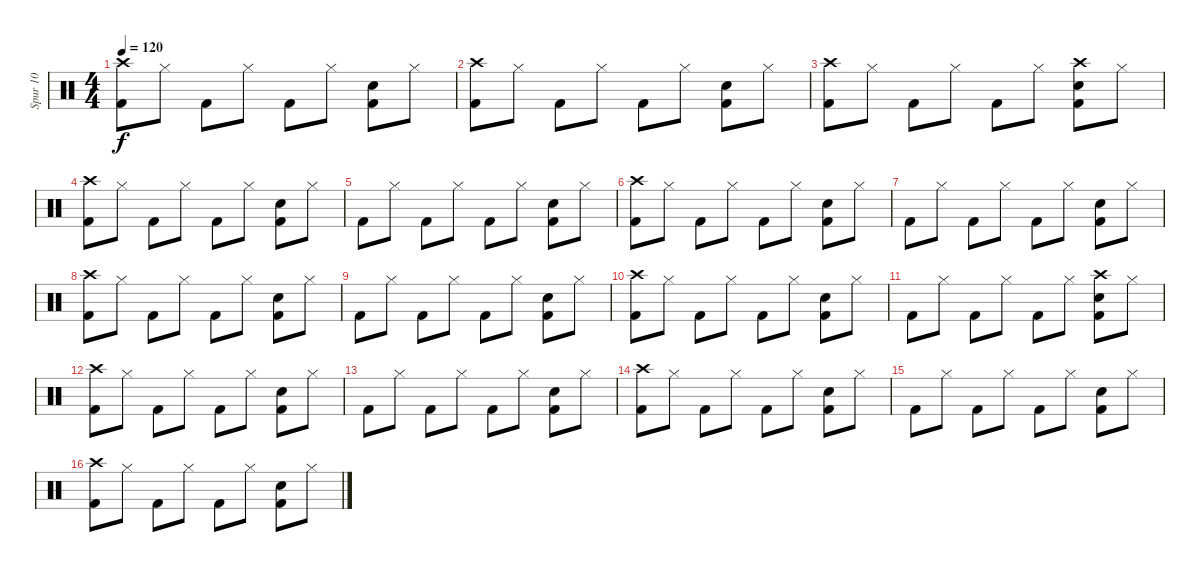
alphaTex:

\track ("Spur 10" "Spur 10") {instrument percussion}
\staff {score}
\articulation defaults
\ts (4 4)
\tempo 120
\clef neutral
\ks c
("Kick (hit) 2" "Crash high (hit)").8{dy f} "Hi-Hat (closed)".8 "Kick (hit) 2".8 "Hi-Hat (closed)".8 "Kick (hit) 2".8 "Hi-Hat (closed)".8 ("Kick (hit) 2" "Hand Clap (hit)").8 "Hi-Hat (closed)".8 |
("Kick (hit) 2" "Crash high (hit)").8 "Hi-Hat (closed)".8 "Kick (hit) 2".8 "Hi-Hat (closed)".8 "Kick (hit) 2".8 "Hi-Hat (closed)".8 ("Kick (hit) 2" "Hand Clap (hit)").8 "Hi-Hat (closed)".8 |
("Kick (hit) 2" "Crash high (hit)").8 "Hi-Hat (closed)".8 "Kick (hit) 2".8 "Hi-Hat (closed)".8 "Kick (hit) 2".8 "Hi-Hat (closed)".8 ("Kick (hit) 2" "Hand Clap (hit)" "Crash high (hit)").8 "Hi-Hat (closed)".8 |
("Crash high (hit)" "Kick (hit) 2").8 "Hi-Hat (closed)".8 "Kick (hit) 2".8 "Hi-Hat (closed)".8 "Kick (hit) 2".8 "Hi-Hat (closed)".8 ("Kick (hit) 2" "Hand Clap (hit)").8 "Hi-Hat (closed)".8 |
"Kick (hit) 2".8 "Hi-Hat (closed)".8 "Kick (hit) 2".8 "Hi-Hat (closed)".8 "Kick (hit) 2".8 "Hi-Hat (closed)".8 ("Kick (hit) 2" "Hand Clap (hit)").8 "Hi-Hat (closed)".8 |
("Kick (hit) 2" "Crash high (hit)").8 "Hi-Hat (closed)".8 "Kick (hit) 2".8 "Hi-Hat (closed)".8 "Kick (hit) 2".8 "Hi-Hat (closed)".8 ("Kick (hit) 2" "Hand Clap (hit)").8 "Hi-Hat (closed)".8 |
"Kick (hit) 2".8 "Hi-Hat (closed)".8 "Kick (hit) 2".8 "Hi-Hat (closed)".8 "Kick (hit) 2".8 "Hi-Hat (closed)".8 ("Kick (hit) 2" "Hand Clap (hit)").8 "Hi-Hat (closed)".8 |
("Kick (hit) 2" "Crash high (hit)").8 "Hi-Hat (closed)".8 "Kick (hit) 2".8 "Hi-Hat (closed)".8 "Kick (hit) 2".8 "Hi-Hat (closed)".8 ("Kick (hit) 2" "Hand Clap (hit)").8 "Hi-Hat (closed)".8 |
"Kick (hit) 2".8 "Hi-Hat (closed)".8 "Kick (hit) 2".8 "Hi-Hat (closed)".8 "Kick (hit) 2".8 "Hi-Hat (closed)".8 ("Kick (hit) 2" "Hand Clap (hit)").8 "Hi-Hat (closed)".8 |
("Kick (hit) 2" "Crash high (hit)").8 "Hi-Hat (closed)".8 "Kick (hit) 2".8 "Hi-Hat (closed)".8 "Kick (hit) 2".8 "Hi-Hat (closed)".8 ("Kick (hit) 2" "Hand Clap (hit)").8 "Hi-Hat (closed)".8 |
"Kick (hit) 2".8 "Hi-Hat (closed)".8 "Kick (hit) 2".8 "Hi-Hat (closed)".8 "Kick (hit) 2".8 "Hi-Hat (closed)".8 ("Kick (hit) 2" "Hand Clap (hit)" "Crash high (hit)").8 "Hi-Hat (closed)".8 |
("Crash high (hit)" "Kick (hit) 2").8 "Hi-Hat (closed)".8 "Kick (hit) 2".8 "Hi-Hat (closed)".8 "Kick (hit) 2".8 "Hi-Hat (closed)".8 ("Kick (hit) 2" "Hand Clap (hit)").8 "Hi-Hat (closed)".8 |
"Kick (hit) 2".8 "Hi-Hat (closed)".8 "Kick (hit) 2".8 "Hi-Hat (closed)".8 "Kick (hit) 2".8 "Hi-Hat (closed)".8 ("Kick (hit) 2" "Hand Clap (hit)").8 "Hi-Hat (closed)".8 |
("Kick (hit) 2" "Crash high (hit)").8 "Hi-Hat (closed)".8 "Kick (hit) 2".8 "Hi-Hat (closed)".8 "Kick (hit) 2".8 "Hi-Hat (closed)".8 ("Kick (hit) 2" "Hand Clap (hit)").8 "Hi-Hat (closed)".8 |
"Kick (hit) 2".8 "Hi-Hat (closed)".8 "Kick (hit) 2".8 "Hi-Hat (closed)".8 "Kick (hit) 2".8 "Hi-Hat (closed)".8 ("Kick (hit) 2" "Hand Clap (hit)").8 "Hi-Hat (closed)".8 |
("Kick (hit) 2" "Crash high (hit)").8 "Hi-Hat (closed)".8 "Kick (hit) 2".8 "Hi-Hat (closed)".8 "Kick (hit) 2".8 "Hi-Hat (closed)".8 ("Kick (hit) 2" "Hand Clap (hit)").8 "Hi-Hat (closed)".8
